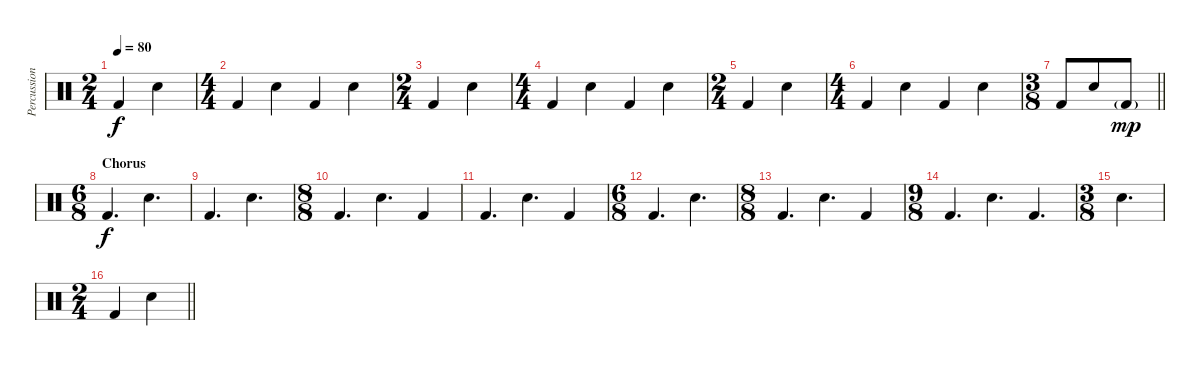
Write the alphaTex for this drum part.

\track ("Percussion" "Percussion") {instrument percussion}
\staff {score}
\articulation defaults
\ts (2 4)
\tempo 80
\clef neutral
\ks c "Kick (hit) 2".4{dy f} "Snare (hit) 2".4
|
\ts (4 4)
"Kick (hit) 2".4 "Snare (hit) 2".4 "Kick (hit) 2".4 "Snare (hit) 2".4 |
\ts (2 4)
"Kick (hit) 2".4 "Snare (hit) 2".4 |
\ts (4 4)
"Kick (hit) 2".4 "Snare (hit) 2".4 "Kick (hit) 2".4 "Snare (hit) 2".4 |
\ts (2 4)
"Kick (hit) 2".4 "Snare (hit) 2".4 |
\ts (4 4)
"Kick (hit) 2".4 "Snare (hit) 2".4 "Kick (hit) 2".4 "Snare (hit) 2".4 |
\ts (3 8)
\barLineRight lightlight "Kick (hit) 2".8 "Snare (hit) 2".8 "Kick (hit) 2"{g}.8{dy mp}
|
\ts (6 8)
\section ("" "Chorus")
"Kick (hit) 2".4{d dy f} "Snare (hit) 2".4{d} |
"Kick (hit) 2".4{d} "Snare (hit) 2".4{d} |
\ts (8 8)
"Kick (hit) 2".4{d} "Snare (hit) 2".4{d} "Kick (hit) 2".4 |
"Kick (hit) 2".4{d} "Snare (hit) 2".4{d} "Kick (hit) 2".4 |
\ts (6 8)
"Kick (hit) 2".4{d} "Snare (hit) 2".4{d} |
\ts (8 8)
"Kick (hit) 2".4{d} "Snare (hit) 2".4{d} "Kick (hit) 2".4 |
\ts (9 8)
"Kick (hit) 2".4{d} "Snare (hit) 2".4{d} "Kick (hit) 2".4{d} |
\ts (3 8)
"Snare (hit) 2".4{d} |
\ts (2 4)
\barLineRight lightlight "Kick (hit) 2".4 "Snare (hit) 2".4
